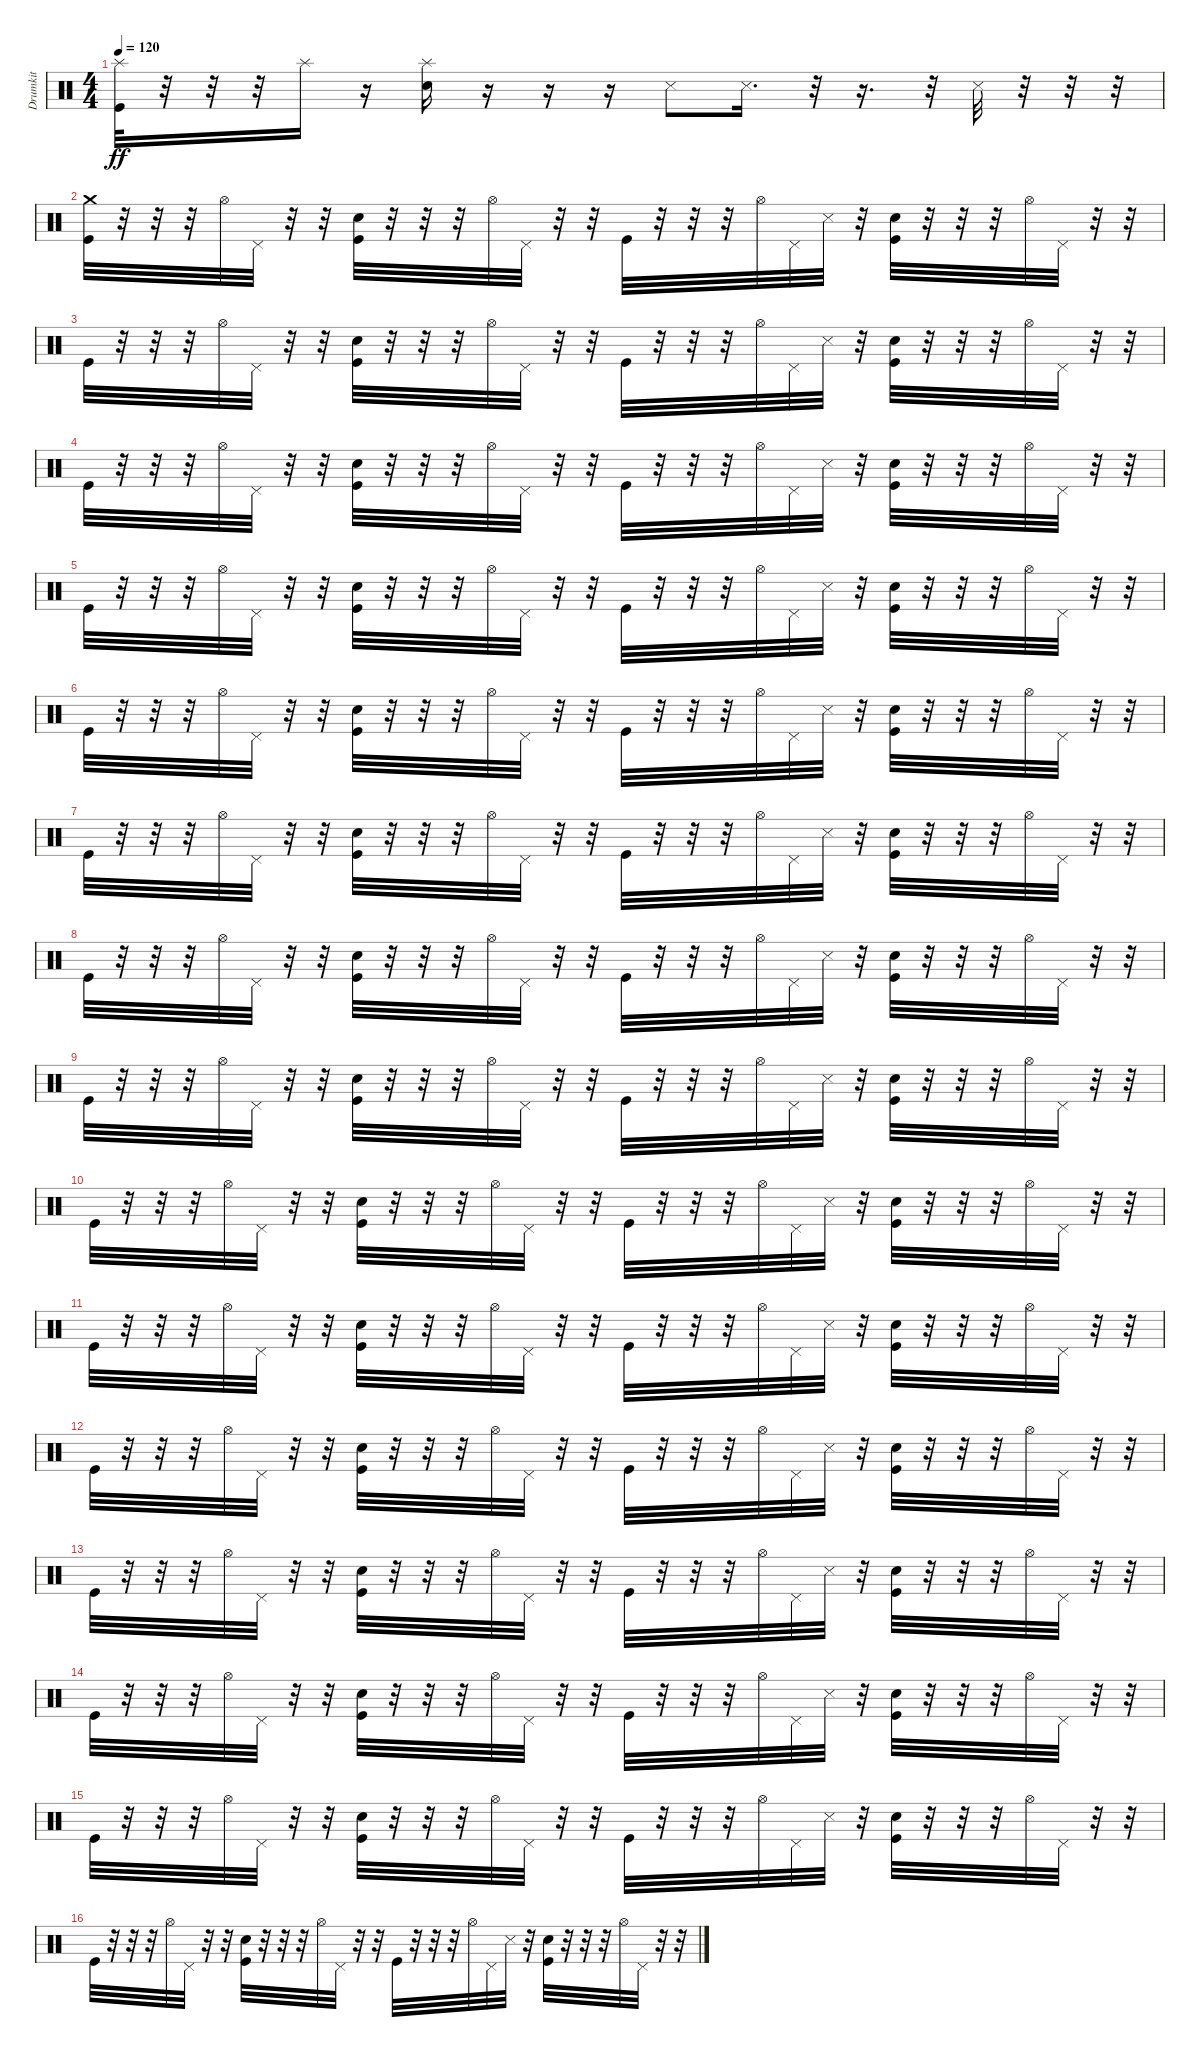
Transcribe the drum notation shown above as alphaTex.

\track ("Drumkit" "Drumkit") {instrument percussion}
\staff {score}
\articulation defaults
\ts (4 4)
\tempo 120
\clef neutral
\ks c
("Splash (hit)" "Kick (hit)").32{dy ff} r.32 r.32 r.32 "Splash (hit)".16 r.16 ("Splash (hit)" "Snare (hit) 2").16 r.16 r.16 r.16 "Snare (side stick) 3".8 "Snare (side stick) 3".16{d} r.32 r.16{d} r.32 "Snare (side stick) 3".32 r.32 r.32 r.32 |
("Crash medium (hit)" "Kick (hit)").32 r.32 r.32 r.32 "Hi-Hat (open)".32 "Pedal Hi-Hat (hit)".32 r.32 r.32 ("Snare (hit) 2" "Kick (hit)").32 r.32 r.32 r.32 "Hi-Hat (open)".32 "Pedal Hi-Hat (hit)".32 r.32 r.32 "Kick (hit)".32 r.32 r.32 r.32 "Hi-Hat (open)".32 "Pedal Hi-Hat (hit)".32 "Snare (side stick) 3".32 r.32 ("Snare (hit) 2" "Kick (hit)").32 r.32 r.32 r.32 "Hi-Hat (open)".32 "Pedal Hi-Hat (hit)".32 r.32 r.32 |
"Kick (hit)".32 r.32 r.32 r.32 "Hi-Hat (open)".32 "Pedal Hi-Hat (hit)".32 r.32 r.32 ("Snare (hit) 2" "Kick (hit)").32 r.32 r.32 r.32 "Hi-Hat (open)".32 "Pedal Hi-Hat (hit)".32 r.32 r.32 "Kick (hit)".32 r.32 r.32 r.32 "Hi-Hat (open)".32 "Pedal Hi-Hat (hit)".32 "Snare (side stick) 3".32 r.32 ("Snare (hit) 2" "Kick (hit)").32 r.32 r.32 r.32 "Hi-Hat (open)".32 "Pedal Hi-Hat (hit)".32 r.32 r.32 |
"Kick (hit)".32 r.32 r.32 r.32 "Hi-Hat (open)".32 "Pedal Hi-Hat (hit)".32 r.32 r.32 ("Snare (hit) 2" "Kick (hit)").32 r.32 r.32 r.32 "Hi-Hat (open)".32 "Pedal Hi-Hat (hit)".32 r.32 r.32 "Kick (hit)".32 r.32 r.32 r.32 "Hi-Hat (open)".32 "Pedal Hi-Hat (hit)".32 "Snare (side stick) 3".32 r.32 ("Snare (hit) 2" "Kick (hit)").32 r.32 r.32 r.32 "Hi-Hat (open)".32 "Pedal Hi-Hat (hit)".32 r.32 r.32 |
"Kick (hit)".32 r.32 r.32 r.32 "Hi-Hat (open)".32 "Pedal Hi-Hat (hit)".32 r.32 r.32 ("Snare (hit) 2" "Kick (hit)").32 r.32 r.32 r.32 "Hi-Hat (open)".32 "Pedal Hi-Hat (hit)".32 r.32 r.32 "Kick (hit)".32 r.32 r.32 r.32 "Hi-Hat (open)".32 "Pedal Hi-Hat (hit)".32 "Snare (side stick) 3".32 r.32 ("Kick (hit)" "Snare (hit) 2").32 r.32 r.32 r.32 "Hi-Hat (open)".32 "Pedal Hi-Hat (hit)".32 r.32 r.32 |
"Kick (hit)".32 r.32 r.32 r.32 "Hi-Hat (open)".32 "Pedal Hi-Hat (hit)".32 r.32 r.32 ("Kick (hit)" "Snare (hit) 2").32 r.32 r.32 r.32 "Hi-Hat (open)".32 "Pedal Hi-Hat (hit)".32 r.32 r.32 "Kick (hit)".32 r.32 r.32 r.32 "Hi-Hat (open)".32 "Pedal Hi-Hat (hit)".32 "Snare (side stick) 3".32 r.32 ("Snare (hit) 2" "Kick (hit)").32 r.32 r.32 r.32 "Hi-Hat (open)".32 "Pedal Hi-Hat (hit)".32 r.32 r.32 |
"Kick (hit)".32 r.32 r.32 r.32 "Hi-Hat (open)".32 "Pedal Hi-Hat (hit)".32 r.32 r.32 ("Snare (hit) 2" "Kick (hit)").32 r.32 r.32 r.32 "Hi-Hat (open)".32 "Pedal Hi-Hat (hit)".32 r.32 r.32 "Kick (hit)".32 r.32 r.32 r.32 "Hi-Hat (open)".32 "Pedal Hi-Hat (hit)".32 "Snare (side stick) 3".32 r.32 ("Kick (hit)" "Snare (hit) 2").32 r.32 r.32 r.32 "Hi-Hat (open)".32 "Pedal Hi-Hat (hit)".32 r.32 r.32 |
"Kick (hit)".32 r.32 r.32 r.32 "Hi-Hat (open)".32 "Pedal Hi-Hat (hit)".32 r.32 r.32 ("Kick (hit)" "Snare (hit) 2").32 r.32 r.32 r.32 "Hi-Hat (open)".32 "Pedal Hi-Hat (hit)".32 r.32 r.32 "Kick (hit)".32 r.32 r.32 r.32 "Hi-Hat (open)".32 "Pedal Hi-Hat (hit)".32 "Snare (side stick) 3".32 r.32 ("Snare (hit) 2" "Kick (hit)").32 r.32 r.32 r.32 "Hi-Hat (open)".32 "Pedal Hi-Hat (hit)".32 r.32 r.32 |
"Kick (hit)".32 r.32 r.32 r.32 "Hi-Hat (open)".32 "Pedal Hi-Hat (hit)".32 r.32 r.32 ("Kick (hit)" "Snare (hit) 2").32 r.32 r.32 r.32 "Hi-Hat (open)".32 "Pedal Hi-Hat (hit)".32 r.32 r.32 "Kick (hit)".32 r.32 r.32 r.32 "Hi-Hat (open)".32 "Pedal Hi-Hat (hit)".32 "Snare (side stick) 3".32 r.32 ("Kick (hit)" "Snare (hit) 2").32 r.32 r.32 r.32 "Hi-Hat (open)".32 "Pedal Hi-Hat (hit)".32 r.32 r.32 |
"Kick (hit)".32 r.32 r.32 r.32 "Hi-Hat (open)".32 "Pedal Hi-Hat (hit)".32 r.32 r.32 ("Snare (hit) 2" "Kick (hit)").32 r.32 r.32 r.32 "Hi-Hat (open)".32 "Pedal Hi-Hat (hit)".32 r.32 r.32 "Kick (hit)".32 r.32 r.32 r.32 "Hi-Hat (open)".32 "Pedal Hi-Hat (hit)".32 "Snare (side stick) 3".32 r.32 ("Kick (hit)" "Snare (hit) 2").32 r.32 r.32 r.32 "Hi-Hat (open)".32 "Pedal Hi-Hat (hit)".32 r.32 r.32 |
"Kick (hit)".32 r.32 r.32 r.32 "Hi-Hat (open)".32 "Pedal Hi-Hat (hit)".32 r.32 r.32 ("Snare (hit) 2" "Kick (hit)").32 r.32 r.32 r.32 "Hi-Hat (open)".32 "Pedal Hi-Hat (hit)".32 r.32 r.32 "Kick (hit)".32 r.32 r.32 r.32 "Hi-Hat (open)".32 "Pedal Hi-Hat (hit)".32 "Snare (side stick) 3".32 r.32 ("Snare (hit) 2" "Kick (hit)").32 r.32 r.32 r.32 "Hi-Hat (open)".32 "Pedal Hi-Hat (hit)".32 r.32 r.32 |
"Kick (hit)".32 r.32 r.32 r.32 "Hi-Hat (open)".32 "Pedal Hi-Hat (hit)".32 r.32 r.32 ("Snare (hit) 2" "Kick (hit)").32 r.32 r.32 r.32 "Hi-Hat (open)".32 "Pedal Hi-Hat (hit)".32 r.32 r.32 "Kick (hit)".32 r.32 r.32 r.32 "Hi-Hat (open)".32 "Pedal Hi-Hat (hit)".32 "Snare (side stick) 3".32 r.32 ("Kick (hit)" "Snare (hit) 2").32 r.32 r.32 r.32 "Hi-Hat (open)".32 "Pedal Hi-Hat (hit)".32 r.32 r.32 |
"Kick (hit)".32 r.32 r.32 r.32 "Hi-Hat (open)".32 "Pedal Hi-Hat (hit)".32 r.32 r.32 ("Kick (hit)" "Snare (hit) 2").32 r.32 r.32 r.32 "Hi-Hat (open)".32 "Pedal Hi-Hat (hit)".32 r.32 r.32 "Kick (hit)".32 r.32 r.32 r.32 "Hi-Hat (open)".32 "Pedal Hi-Hat (hit)".32 "Snare (side stick) 3".32 r.32 ("Kick (hit)" "Snare (hit) 2").32 r.32 r.32 r.32 "Hi-Hat (open)".32 "Pedal Hi-Hat (hit)".32 r.32 r.32 |
"Kick (hit)".32 r.32 r.32 r.32 "Hi-Hat (open)".32 "Pedal Hi-Hat (hit)".32 r.32 r.32 ("Snare (hit) 2" "Kick (hit)").32 r.32 r.32 r.32 "Hi-Hat (open)".32 "Pedal Hi-Hat (hit)".32 r.32 r.32 "Kick (hit)".32 r.32 r.32 r.32 "Hi-Hat (open)".32 "Pedal Hi-Hat (hit)".32 "Snare (side stick) 3".32 r.32 ("Kick (hit)" "Snare (hit) 2").32 r.32 r.32 r.32 "Hi-Hat (open)".32 "Pedal Hi-Hat (hit)".32 r.32 r.32 |
"Kick (hit)".32 r.32 r.32 r.32 "Hi-Hat (open)".32 "Pedal Hi-Hat (hit)".32 r.32 r.32 ("Snare (hit) 2" "Kick (hit)").32 r.32 r.32 r.32 "Hi-Hat (open)".32 "Pedal Hi-Hat (hit)".32 r.32 r.32 "Kick (hit)".32 r.32 r.32 r.32 "Hi-Hat (open)".32 "Pedal Hi-Hat (hit)".32 "Snare (side stick) 3".32 r.32 ("Snare (hit) 2" "Kick (hit)").32 r.32 r.32 r.32 "Hi-Hat (open)".32 "Pedal Hi-Hat (hit)".32 r.32 r.32 |
"Kick (hit)".32 r.32 r.32 r.32 "Hi-Hat (open)".32 "Pedal Hi-Hat (hit)".32 r.32 r.32 ("Snare (hit) 2" "Kick (hit)").32 r.32 r.32 r.32 "Hi-Hat (open)".32 "Pedal Hi-Hat (hit)".32 r.32 r.32 "Kick (hit)".32 r.32 r.32 r.32 "Hi-Hat (open)".32 "Pedal Hi-Hat (hit)".32 "Snare (side stick) 3".32 r.32 ("Kick (hit)" "Snare (hit) 2").32 r.32 r.32 r.32 "Hi-Hat (open)".32 "Pedal Hi-Hat (hit)".32 r.32 r.32
